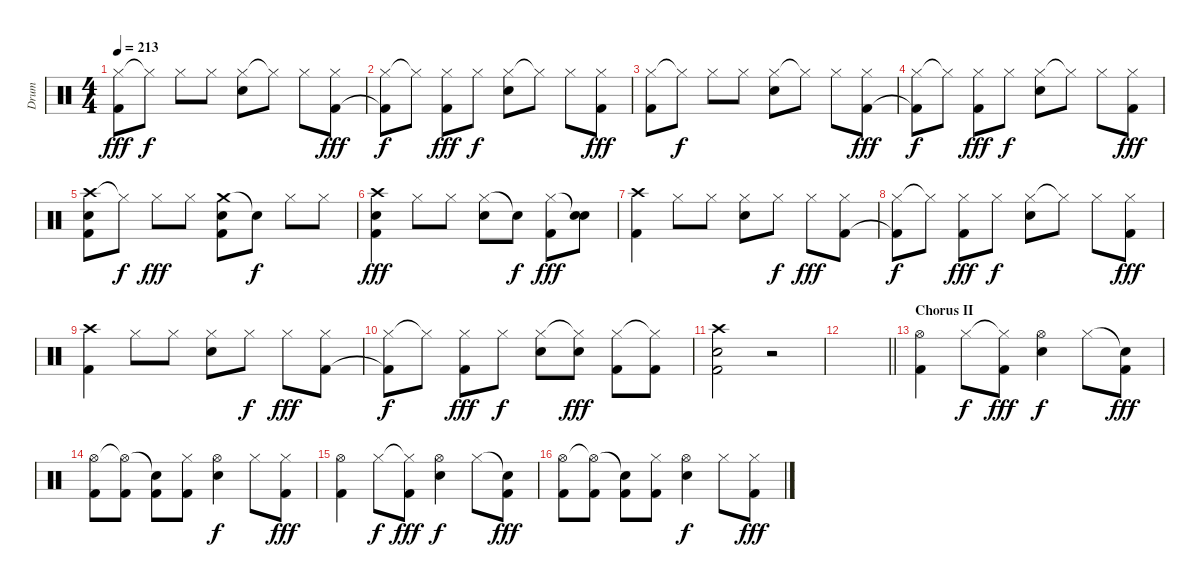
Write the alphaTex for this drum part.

\track ("Drum" "Drum") {instrument percussion}
\staff {score}
\articulation defaults
\ts (4 4)
\tempo 213
\clef neutral
\ks c
("Hi-Hat (closed)" "Kick (hit) 2").8{dy fff} "Hi-Hat (closed)"{t}.8{dy f} "Hi-Hat (closed)".8 "Hi-Hat (closed)".8 ("Hi-Hat (closed)" "Snare (hit) 2").8 "Hi-Hat (closed)"{t}.8 "Hi-Hat (closed)".8 ("Hi-Hat (closed)" "Kick (hit) 2").8{dy fff} |
("Hi-Hat (closed)" "Kick (hit) 2"{t}).8{dy f} "Hi-Hat (closed)"{t}.8 ("Hi-Hat (closed)" "Kick (hit) 2").8{dy fff} "Hi-Hat (closed)".8{dy f} ("Hi-Hat (closed)" "Snare (hit) 2").8 "Hi-Hat (closed)"{t}.8 "Hi-Hat (closed)".8 ("Hi-Hat (closed)" "Kick (hit) 2").8{dy fff} |
("Hi-Hat (closed)" "Kick (hit) 2").8 "Hi-Hat (closed)"{t}.8{dy f} "Hi-Hat (closed)".8 "Hi-Hat (closed)".8 ("Hi-Hat (closed)" "Snare (hit) 2").8 "Hi-Hat (closed)"{t}.8 "Hi-Hat (closed)".8 ("Hi-Hat (closed)" "Kick (hit) 2").8{dy fff} |
("Hi-Hat (closed)" "Kick (hit) 2"{t}).8{dy f} "Hi-Hat (closed)"{t}.8 ("Hi-Hat (closed)" "Kick (hit) 2").8{dy fff} "Hi-Hat (closed)".8{dy f} ("Hi-Hat (closed)" "Snare (hit) 2").8 "Hi-Hat (closed)"{t}.8 "Hi-Hat (closed)".8 ("Hi-Hat (closed)" "Kick (hit) 2").8{dy fff} |
("Crash high (hit)" "Snare (hit) 2" "Kick (hit) 2").8 "Hi-Hat (closed)"{t}.8{dy f} "Hi-Hat (closed)".8{dy fff} "Hi-Hat (closed)".8 ("Crash medium (hit)" "Snare (hit) 2" "Kick (hit) 2").8 "Snare (hit)"{t}.8{dy f} "Hi-Hat (closed)".8 "Hi-Hat (closed)".8 |
("Crash high (hit)" "Snare (hit) 2" "Kick (hit) 2").4{dy fff} "Hi-Hat (closed)".8 "Hi-Hat (closed)".8 ("Hi-Hat (closed)" "Snare (hit) 2").8 "Snare (hit)"{t}.8{dy f} ("Hi-Hat (closed)" "Kick (hit) 2").8{dy fff} ("Snare (hit)"{t} "Snare (hit) 2").8 |
("Crash high (hit)" "Kick (hit) 2").4 "Hi-Hat (closed)".8 "Hi-Hat (closed)".8 ("Hi-Hat (closed)" "Snare (hit) 2").8 "Hi-Hat (closed)".8{dy f} "Hi-Hat (closed)".8{dy fff} ("Hi-Hat (closed)" "Kick (hit) 2").8 |
("Hi-Hat (closed)" "Kick (hit) 2"{t}).8{dy f} "Hi-Hat (closed)"{t}.8 ("Hi-Hat (closed)" "Kick (hit) 2").8{dy fff} "Hi-Hat (closed)".8{dy f} ("Hi-Hat (closed)" "Snare (hit) 2").8 "Hi-Hat (closed)"{t}.8 "Hi-Hat (closed)".8 ("Hi-Hat (closed)" "Kick (hit) 2").8{dy fff} |
("Crash high (hit)" "Kick (hit) 2").4 "Hi-Hat (closed)".8 "Hi-Hat (closed)".8 ("Hi-Hat (closed)" "Snare (hit) 2").8 "Hi-Hat (closed)".8{dy f} "Hi-Hat (closed)".8{dy fff} ("Hi-Hat (closed)" "Kick (hit) 2").8 |
("Hi-Hat (closed)" "Kick (hit) 2"{t}).8{dy f} "Hi-Hat (closed)"{t}.8 ("Hi-Hat (closed)" "Kick (hit) 2").8{dy fff} "Hi-Hat (closed)".8{dy f} ("Hi-Hat (closed)" "Snare (hit) 2").8 ("Hi-Hat (closed)"{t} "Snare (hit) 2").8{dy fff} ("Hi-Hat (closed)" "Kick (hit) 2").8 ("Hi-Hat (closed)"{t} "Kick (hit) 2").8 |
("Crash high (hit)" "Snare (hit) 2" "Kick (hit) 2").2 r.2 |
\barLineRight lightlight
|
\section ("" "Chorus II")
("Hi-Hat (open)" "Kick (hit) 2").4 "Hi-Hat (closed)".8{dy f} ("Hi-Hat (closed)"{t} "Kick (hit) 2").8{dy fff} ("Hi-Hat (open)" "Snare (hit) 2").4{dy f} "Hi-Hat (closed)".8 ("Snare (hit)"{t} "Kick (hit) 2").8{dy fff} |
("Hi-Hat (open)" "Kick (hit) 2").8 ("Hi-Hat (open)"{t} "Kick (hit) 2").8 ("Snare (hit)"{t} "Kick (hit) 2").8 ("Hi-Hat (closed)" "Kick (hit) 2").8 ("Hi-Hat (open)" "Snare (hit) 2").4{dy f} "Hi-Hat (closed)".8 ("Hi-Hat (closed)" "Kick (hit) 2").8{dy fff} |
("Hi-Hat (open)" "Kick (hit) 2").4 "Hi-Hat (closed)".8{dy f} ("Hi-Hat (closed)"{t} "Kick (hit) 2").8{dy fff} ("Hi-Hat (open)" "Snare (hit) 2").4{dy f} "Hi-Hat (closed)".8 ("Snare (hit)"{t} "Kick (hit) 2").8{dy fff} |
("Hi-Hat (open)" "Kick (hit) 2").8 ("Hi-Hat (open)"{t} "Kick (hit) 2").8 ("Snare (hit)"{t} "Kick (hit) 2").8 ("Hi-Hat (closed)" "Kick (hit) 2").8 ("Hi-Hat (open)" "Snare (hit) 2").4{dy f} "Hi-Hat (closed)".8 ("Hi-Hat (closed)" "Kick (hit) 2").8{dy fff}
